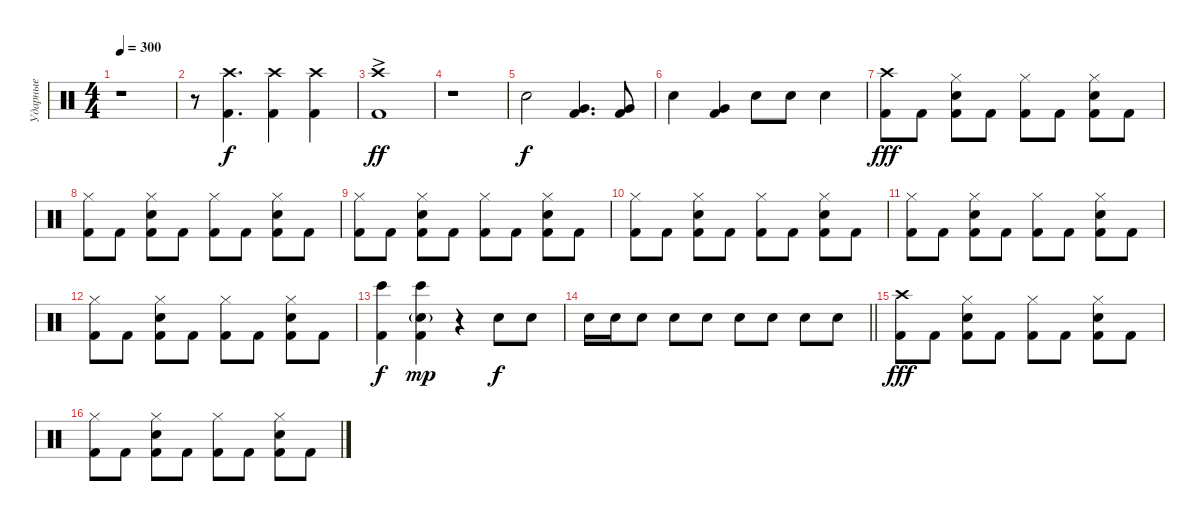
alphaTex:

\track ("Ударные" "Ударные") {instrument percussion}
\staff {score}
\articulation defaults
\ts (4 4)
\tempo 300
\clef neutral
\ks c
r.1{dy ff} |
r.8 ("Kick (hit) 2" "Crash high (hit)").4{d dy f} ("Kick (hit) 2" "Crash high (hit)").4 ("Kick (hit) 2" "Crash high (hit)").4 |
("Kick (hit) 2" "Crash high (hit)"{ac}).1{dy ff} |
r.1 |
"Snare (hit) 2".2{dy f} ("Kick (hit) 2" "Very Low Tom (hit)").4{d} ("Kick (hit) 2" "Very Low Tom (hit)").8 |
"Snare (hit) 2".4 ("Kick (hit) 2" "Very Low Tom (hit)").4 "Snare (hit) 2".8 "Snare (hit) 2".8 "Snare (hit) 2".4 |
("Kick (hit) 2" "Crash high (hit)").8{dy fff} "Kick (hit) 2".8 ("Kick (hit) 2" "Snare (hit) 2" "Hi-Hat (closed)").8 "Kick (hit) 2".8 ("Kick (hit) 2" "Hi-Hat (closed)").8 "Kick (hit) 2".8 ("Kick (hit) 2" "Snare (hit) 2" "Hi-Hat (closed)").8 "Kick (hit) 2".8 |
("Kick (hit) 2" "Hi-Hat (closed)").8 "Kick (hit) 2".8 ("Kick (hit) 2" "Snare (hit) 2" "Hi-Hat (closed)").8 "Kick (hit) 2".8 ("Kick (hit) 2" "Hi-Hat (closed)").8 "Kick (hit) 2".8 ("Kick (hit) 2" "Snare (hit) 2" "Hi-Hat (closed)").8 "Kick (hit) 2".8 |
("Kick (hit) 2" "Hi-Hat (closed)").8 "Kick (hit) 2".8 ("Kick (hit) 2" "Snare (hit) 2" "Hi-Hat (closed)").8 "Kick (hit) 2".8 ("Kick (hit) 2" "Hi-Hat (closed)").8 "Kick (hit) 2".8 ("Kick (hit) 2" "Snare (hit) 2" "Hi-Hat (closed)").8 "Kick (hit) 2".8 |
("Kick (hit) 2" "Hi-Hat (closed)").8 "Kick (hit) 2".8 ("Kick (hit) 2" "Snare (hit) 2" "Hi-Hat (closed)").8 "Kick (hit) 2".8 ("Kick (hit) 2" "Hi-Hat (closed)").8 "Kick (hit) 2".8 ("Kick (hit) 2" "Snare (hit) 2" "Hi-Hat (closed)").8 "Kick (hit) 2".8 |
("Kick (hit) 2" "Hi-Hat (closed)").8 "Kick (hit) 2".8 ("Kick (hit) 2" "Snare (hit) 2" "Hi-Hat (closed)").8 "Kick (hit) 2".8 ("Kick (hit) 2" "Hi-Hat (closed)").8 "Kick (hit) 2".8 ("Kick (hit) 2" "Snare (hit) 2" "Hi-Hat (closed)").8 "Kick (hit) 2".8 |
("Kick (hit) 2" "Hi-Hat (closed)").8 "Kick (hit) 2".8 ("Kick (hit) 2" "Snare (hit) 2" "Hi-Hat (closed)").8 "Kick (hit) 2".8 ("Kick (hit) 2" "Hi-Hat (closed)").8 "Kick (hit) 2".8 ("Kick (hit) 2" "Snare (hit) 2" "Hi-Hat (closed)").8 "Kick (hit) 2".8 |
("Kick (hit) 2" "Bongo High (hit)").4{dy f} ("Kick (hit) 2" "Snare (hit) 2"{g} "Bongo High (hit)").4{dy mp} r.4 "Snare (hit) 2".8{dy f} "Snare (hit) 2".8 |
\barLineRight lightlight "Snare (hit) 2".16 "Snare (hit) 2".16 "Snare (hit) 2".8 "Snare (hit) 2".8 "Snare (hit) 2".8 "Snare (hit) 2".8 "Snare (hit) 2".8 "Snare (hit) 2".8 "Snare (hit) 2".8
|
("Kick (hit) 2" "Crash high (hit)").8{dy fff} "Kick (hit) 2".8 ("Kick (hit) 2" "Snare (hit) 2" "Hi-Hat (closed)").8 "Kick (hit) 2".8 ("Kick (hit) 2" "Hi-Hat (closed)").8 "Kick (hit) 2".8 ("Kick (hit) 2" "Snare (hit) 2" "Hi-Hat (closed)").8 "Kick (hit) 2".8 |
("Kick (hit) 2" "Hi-Hat (closed)").8 "Kick (hit) 2".8 ("Kick (hit) 2" "Snare (hit) 2" "Hi-Hat (closed)").8 "Kick (hit) 2".8 ("Kick (hit) 2" "Hi-Hat (closed)").8 "Kick (hit) 2".8 ("Kick (hit) 2" "Snare (hit) 2" "Hi-Hat (closed)").8 "Kick (hit) 2".8
